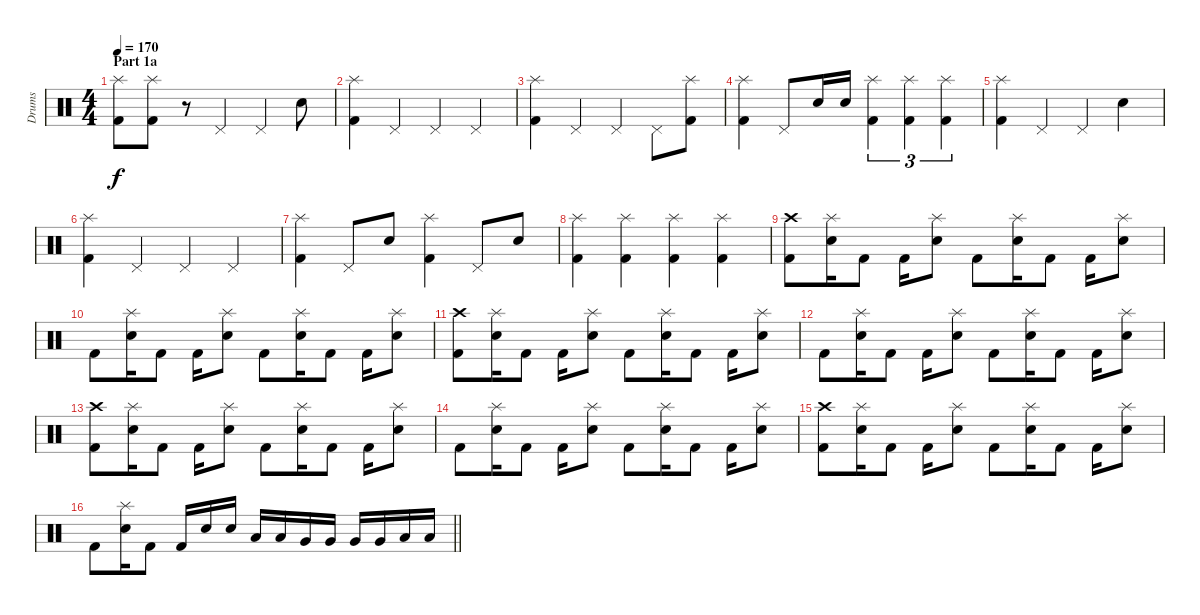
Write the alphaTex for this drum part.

\track ("Drums" "Drums") {instrument percussion}
\staff {score}
\articulation defaults
\ts (4 4)
\section ("" "Part 1a")
\tempo 170
\clef neutral
\ks c
("Kick (hit) 2" "Splash (hit)").8{dy f} ("Kick (hit) 2" "Splash (hit)").8 r.8 "Pedal Hi-Hat (hit)".4 "Pedal Hi-Hat (hit)".4 "Electric Snare (hit)".8 |
("Kick (hit) 2" "Splash (hit)").4 "Pedal Hi-Hat (hit)".4 "Pedal Hi-Hat (hit)".4 "Pedal Hi-Hat (hit)".4 |
("Kick (hit) 2" "Splash (hit)").4 "Pedal Hi-Hat (hit)".4 "Pedal Hi-Hat (hit)".4 "Pedal Hi-Hat (hit)".8 ("Kick (hit) 2" "Splash (hit)").8 |
("Kick (hit) 2" "Splash (hit)").4 "Pedal Hi-Hat (hit)".8 "Electric Snare (hit)".16 "Electric Snare (hit)".16 ("Kick (hit) 2" "Splash (hit)").4{tu (3 2)} ("Kick (hit) 2" "Splash (hit)").4{tu (3 2)} ("Kick (hit) 2" "Splash (hit)").4{tu (3 2)} |
("Kick (hit) 2" "Splash (hit)").4 "Pedal Hi-Hat (hit)".4 "Pedal Hi-Hat (hit)".4 "Electric Snare (hit)".4 |
("Kick (hit) 2" "Splash (hit)").4 "Pedal Hi-Hat (hit)".4 "Pedal Hi-Hat (hit)".4 "Pedal Hi-Hat (hit)".4 |
("Kick (hit) 2" "Splash (hit)").4 "Pedal Hi-Hat (hit)".8 "Electric Snare (hit)".8 ("Kick (hit) 2" "Splash (hit)").4 "Pedal Hi-Hat (hit)".8 "Electric Snare (hit)".8 |
("Kick (hit) 2" "Splash (hit)").4 ("Kick (hit) 2" "Splash (hit)").4 ("Kick (hit) 2" "Splash (hit)").4 ("Kick (hit) 2" "Splash (hit)").4 |
("Kick (hit) 2" "Crash high (hit)").8 ("Electric Snare (hit)" "Splash (hit)").16 "Kick (hit) 2".8 "Kick (hit) 2".16 ("Electric Snare (hit)" "Splash (hit)").8 "Kick (hit) 2".8 ("Electric Snare (hit)" "Splash (hit)").16 "Kick (hit) 2".8 "Kick (hit) 2".16 ("Electric Snare (hit)" "Splash (hit)").8 |
"Kick (hit) 2".8 ("Electric Snare (hit)" "Splash (hit)").16 "Kick (hit) 2".8 "Kick (hit) 2".16 ("Electric Snare (hit)" "Splash (hit)").8 "Kick (hit) 2".8 ("Electric Snare (hit)" "Splash (hit)").16 "Kick (hit) 2".8 "Kick (hit) 2".16 ("Electric Snare (hit)" "Splash (hit)").8 |
("Kick (hit) 2" "Crash high (hit)").8 ("Electric Snare (hit)" "Splash (hit)").16 "Kick (hit) 2".8 "Kick (hit) 2".16 ("Electric Snare (hit)" "Splash (hit)").8 "Kick (hit) 2".8 ("Electric Snare (hit)" "Splash (hit)").16 "Kick (hit) 2".8 "Kick (hit) 2".16 ("Electric Snare (hit)" "Splash (hit)").8 |
"Kick (hit) 2".8 ("Electric Snare (hit)" "Splash (hit)").16 "Kick (hit) 2".8 "Kick (hit) 2".16 ("Electric Snare (hit)" "Splash (hit)").8 "Kick (hit) 2".8 ("Electric Snare (hit)" "Splash (hit)").16 "Kick (hit) 2".8 "Kick (hit) 2".16 ("Electric Snare (hit)" "Splash (hit)").8 |
("Kick (hit) 2" "Crash high (hit)").8 ("Electric Snare (hit)" "Splash (hit)").16 "Kick (hit) 2".8 "Kick (hit) 2".16 ("Electric Snare (hit)" "Splash (hit)").8 "Kick (hit) 2".8 ("Electric Snare (hit)" "Splash (hit)").16 "Kick (hit) 2".8 "Kick (hit) 2".16 ("Electric Snare (hit)" "Splash (hit)").8 |
"Kick (hit) 2".8 ("Electric Snare (hit)" "Splash (hit)").16 "Kick (hit) 2".8 "Kick (hit) 2".16 ("Electric Snare (hit)" "Splash (hit)").8 "Kick (hit) 2".8 ("Electric Snare (hit)" "Splash (hit)").16 "Kick (hit) 2".8 "Kick (hit) 2".16 ("Electric Snare (hit)" "Splash (hit)").8 |
("Kick (hit) 2" "Crash high (hit)").8 ("Electric Snare (hit)" "Splash (hit)").16 "Kick (hit) 2".8 "Kick (hit) 2".16 ("Electric Snare (hit)" "Splash (hit)").8 "Kick (hit) 2".8 ("Electric Snare (hit)" "Splash (hit)").16 "Kick (hit) 2".8 "Kick (hit) 2".16 ("Electric Snare (hit)" "Splash (hit)").8 |
\barLineRight lightlight "Kick (hit) 2".8
("Electric Snare (hit)" "Splash (hit)").16 "Kick (hit) 2".8 "Kick (hit) 2".16 "Electric Snare (hit)".16 "Electric Snare (hit)".16 "Low Tom (hit)".16 "Low Tom (hit)".16 "Very Low Tom (hit)".16 "Very Low Tom (hit)".16 "Very Low Tom (hit)".16 "Very Low Tom (hit)".16 "Low Floor Tom (hit)".16 "Low Floor Tom (hit)".16
